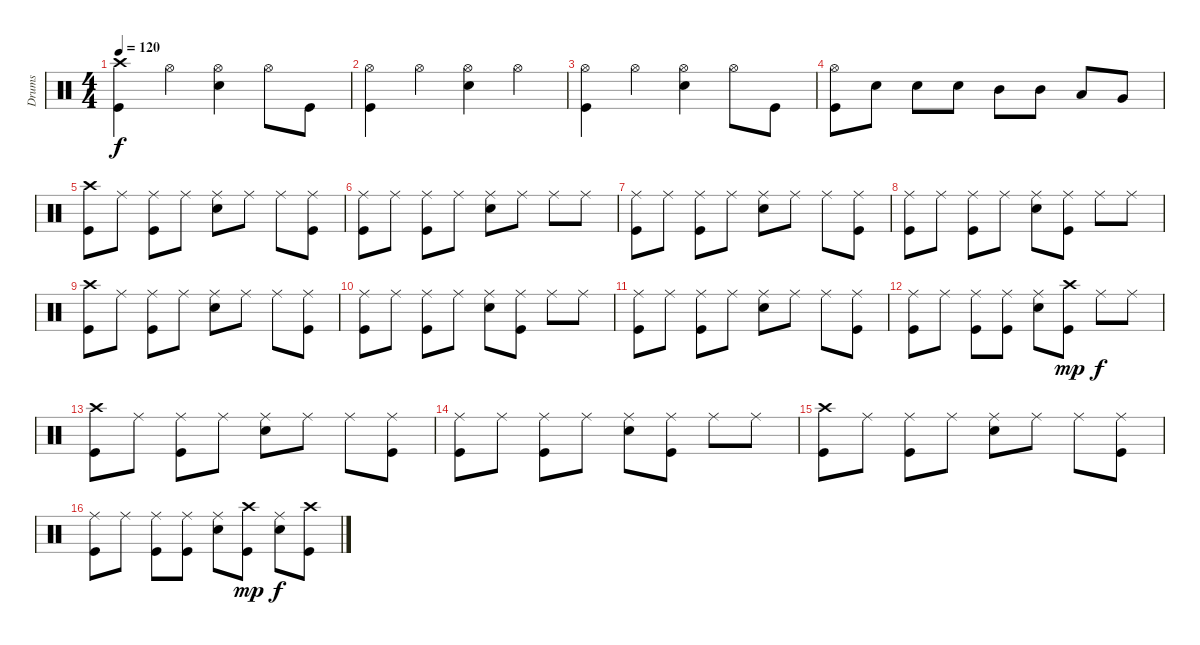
\track ("Drums" "Drums") {instrument percussion}
\staff {score}
\articulation defaults
\ts (4 4)
\tempo 120
\clef neutral
\ks c
("Crash high (hit)" "Kick (hit)").4{dy f} "Hi-Hat (open)".4 ("Hi-Hat (open)" "Snare (hit) 2").4 "Hi-Hat (open)".8 "Kick (hit)".8 |
("Hi-Hat (open)" "Kick (hit)").4 "Hi-Hat (open)".4 ("Hi-Hat (open)" "Snare (hit) 2").4 "Hi-Hat (open)".4 |
("Hi-Hat (open)" "Kick (hit)").4 "Hi-Hat (open)".4 ("Hi-Hat (open)" "Snare (hit) 2").4 "Hi-Hat (open)".8 "Kick (hit)".8 |
("Hi-Hat (open)" "Kick (hit)").8 "Snare (hit) 2".8 "Snare (hit) 2".8 "Snare (hit) 2".8 "Mid Tom (hit)".8 "Mid Tom (hit)".8 "Low Tom (hit)".8 "Very Low Tom (hit)".8 |
("Crash high (hit)" "Kick (hit)").8 "Ride (middle)".8 ("Ride (middle)" "Kick (hit)").8 "Ride (middle)".8 ("Ride (middle)" "Snare (hit) 2").8 "Ride (middle)".8 "Ride (middle)".8 ("Ride (middle)" "Kick (hit)").8 |
("Ride (middle)" "Kick (hit)").8 "Ride (middle)".8 ("Ride (middle)" "Kick (hit)").8 "Ride (middle)".8 ("Ride (middle)" "Snare (hit) 2").8 "Ride (middle)".8 "Ride (middle)".8 "Ride (middle)".8 |
("Ride (middle)" "Kick (hit)").8 "Ride (middle)".8 ("Ride (middle)" "Kick (hit)").8 "Ride (middle)".8 ("Ride (middle)" "Snare (hit) 2").8 "Ride (middle)".8 "Ride (middle)".8 ("Ride (middle)" "Kick (hit)").8 |
("Ride (middle)" "Kick (hit)").8 "Ride (middle)".8 ("Ride (middle)" "Kick (hit)").8 "Ride (middle)".8 ("Ride (middle)" "Snare (hit) 2").8 ("Ride (middle)" "Kick (hit)").8 "Ride (middle)".8 "Ride (middle)".8 |
("Crash high (hit)" "Kick (hit)").8 "Ride (middle)".8 ("Ride (middle)" "Kick (hit)").8 "Ride (middle)".8 ("Ride (middle)" "Snare (hit) 2").8 "Ride (middle)".8 "Ride (middle)".8 ("Ride (middle)" "Kick (hit)").8 |
("Ride (middle)" "Kick (hit)").8 "Ride (middle)".8 ("Ride (middle)" "Kick (hit)").8 "Ride (middle)".8 ("Ride (middle)" "Snare (hit) 2").8 ("Ride (middle)" "Kick (hit)").8 "Ride (middle)".8 "Ride (middle)".8 |
("Ride (middle)" "Kick (hit)").8 "Ride (middle)".8 ("Ride (middle)" "Kick (hit)").8 "Ride (middle)".8 ("Ride (middle)" "Snare (hit) 2").8 "Ride (middle)".8 "Ride (middle)".8 ("Ride (middle)" "Kick (hit)").8 |
("Ride (middle)" "Kick (hit)").8 "Ride (middle)".8 ("Ride (middle)" "Kick (hit)").8 ("Ride (middle)" "Kick (hit)").8 ("Ride (middle)" "Snare (hit) 2").8 ("Crash high (hit)" "Kick (hit)").8{dy mp} "Ride (middle)".8{dy f} "Ride (middle)".8 |
("Crash high (hit)" "Kick (hit)").8 "Ride (middle)".8 ("Ride (middle)" "Kick (hit)").8 "Ride (middle)".8 ("Ride (middle)" "Snare (hit) 2").8 "Ride (middle)".8 "Ride (middle)".8 ("Ride (middle)" "Kick (hit)").8 |
("Ride (middle)" "Kick (hit)").8 "Ride (middle)".8 ("Ride (middle)" "Kick (hit)").8 "Ride (middle)".8 ("Ride (middle)" "Snare (hit) 2").8 ("Ride (middle)" "Kick (hit)").8 "Ride (middle)".8 "Ride (middle)".8 |
("Crash high (hit)" "Kick (hit)").8 "Ride (middle)".8 ("Ride (middle)" "Kick (hit)").8 "Ride (middle)".8 ("Ride (middle)" "Snare (hit) 2").8 "Ride (middle)".8 "Ride (middle)".8 ("Ride (middle)" "Kick (hit)").8 |
("Ride (middle)" "Kick (hit)").8 "Ride (middle)".8 ("Ride (middle)" "Kick (hit)").8 ("Ride (middle)" "Kick (hit)").8 ("Ride (middle)" "Snare (hit) 2").8 ("Crash high (hit)" "Kick (hit)").8{dy mp} ("Ride (middle)" "Snare (hit) 2").8{dy f} ("Crash high (hit)" "Kick (hit)").8
